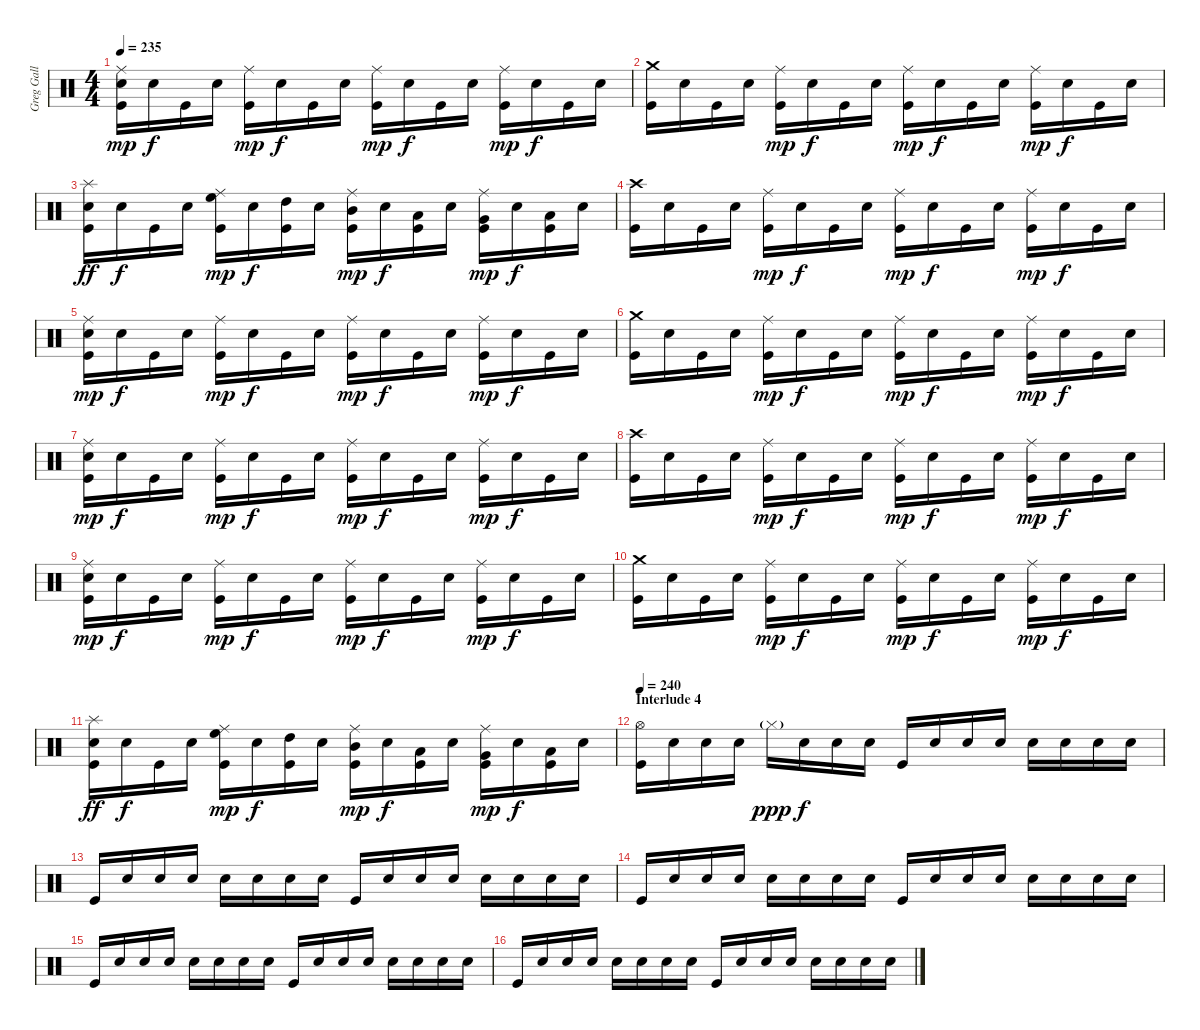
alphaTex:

\track ("Greg Gall - Drums" "Greg Gall ") {instrument percussion}
\staff {score}
\articulation defaults
\ts (4 4)
\tempo 235
\clef neutral
\ks c
("Ride (middle)" "Electric Snare (hit)" "Kick (hit)").16{dy mp} "Snare (hit)".16{dy f} "Kick (hit)".16 "Snare (hit)".16 ("Ride (middle)" "Kick (hit)").16{dy mp} "Snare (hit)".16{dy f} "Kick (hit)".16 "Snare (hit)".16 ("Ride (middle)" "Kick (hit)").16{dy mp} "Snare (hit)".16{dy f} "Kick (hit)".16 "Snare (hit)".16 ("Ride (middle)" "Kick (hit)").16{dy mp} "Snare (hit)".16{dy f} "Kick (hit)".16 "Snare (hit)".16 |
("Crash medium (hit)" "Kick (hit)").16 "Snare (hit)".16 "Kick (hit)".16 "Snare (hit)".16 ("Ride (middle)" "Kick (hit)").16{dy mp} "Snare (hit)".16{dy f} "Kick (hit)".16 "Snare (hit)".16 ("Ride (middle)" "Kick (hit)").16{dy mp} "Snare (hit)".16{dy f} "Kick (hit)".16 "Snare (hit)".16 ("Ride (middle)" "Kick (hit)").16{dy mp} "Snare (hit)".16{dy f} "Kick (hit)".16 "Snare (hit)".16 |
("Splash (hit)" "Electric Snare (hit)" "Kick (hit)").16{dy ff} "Snare (hit)".16{dy f} "Kick (hit)".16 "Snare (hit)".16 ("Ride (middle)" "High Floor Tom (hit)" "Kick (hit)").16{dy mp} "Snare (hit)".16{dy f} ("High Tom (hit)" "Kick (hit)").16 "Snare (hit)".16 ("Ride (middle)" "Mid Tom (hit)" "Kick (hit)").16{dy mp} "Snare (hit)".16{dy f} ("Low Tom (hit)" "Kick (hit)").16 "Snare (hit)".16 ("Ride (middle)" "Very Low Tom (hit)" "Kick (hit)").16{dy mp} "Snare (hit)".16{dy f} ("Low Floor Tom (hit)" "Kick (hit)").16 "Snare (hit)".16 |
("Crash high (hit)" "Kick (hit)").16 "Snare (hit)".16 "Kick (hit)".16 "Snare (hit)".16 ("Ride (middle)" "Kick (hit)").16{dy mp} "Snare (hit)".16{dy f} "Kick (hit)".16 "Snare (hit)".16 ("Ride (middle)" "Kick (hit)").16{dy mp} "Snare (hit)".16{dy f} "Kick (hit)".16 "Snare (hit)".16 ("Ride (middle)" "Kick (hit)").16{dy mp} "Snare (hit)".16{dy f} "Kick (hit)".16 "Snare (hit)".16 |
("Ride (middle)" "Electric Snare (hit)" "Kick (hit)").16{dy mp} "Snare (hit)".16{dy f} "Kick (hit)".16 "Snare (hit)".16 ("Ride (middle)" "Kick (hit)").16{dy mp} "Snare (hit)".16{dy f} "Kick (hit)".16 "Snare (hit)".16 ("Ride (middle)" "Kick (hit)").16{dy mp} "Snare (hit)".16{dy f} "Kick (hit)".16 "Snare (hit)".16 ("Ride (middle)" "Kick (hit)").16{dy mp} "Snare (hit)".16{dy f} "Kick (hit)".16 "Snare (hit)".16 |
("Crash medium (hit)" "Kick (hit)").16 "Snare (hit)".16 "Kick (hit)".16 "Snare (hit)".16 ("Ride (middle)" "Kick (hit)").16{dy mp} "Snare (hit)".16{dy f} "Kick (hit)".16 "Snare (hit)".16 ("Ride (middle)" "Kick (hit)").16{dy mp} "Snare (hit)".16{dy f} "Kick (hit)".16 "Snare (hit)".16 ("Ride (middle)" "Kick (hit)").16{dy mp} "Snare (hit)".16{dy f} "Kick (hit)".16 "Snare (hit)".16 |
("Ride (middle)" "Electric Snare (hit)" "Kick (hit)").16{dy mp} "Snare (hit)".16{dy f} "Kick (hit)".16 "Snare (hit)".16 ("Ride (middle)" "Kick (hit)").16{dy mp} "Snare (hit)".16{dy f} "Kick (hit)".16 "Snare (hit)".16 ("Ride (middle)" "Kick (hit)").16{dy mp} "Snare (hit)".16{dy f} "Kick (hit)".16 "Snare (hit)".16 ("Ride (middle)" "Kick (hit)").16{dy mp} "Snare (hit)".16{dy f} "Kick (hit)".16 "Snare (hit)".16 |
("Crash high (hit)" "Kick (hit)").16 "Snare (hit)".16 "Kick (hit)".16 "Snare (hit)".16 ("Ride (middle)" "Kick (hit)").16{dy mp} "Snare (hit)".16{dy f} "Kick (hit)".16 "Snare (hit)".16 ("Ride (middle)" "Kick (hit)").16{dy mp} "Snare (hit)".16{dy f} "Kick (hit)".16 "Snare (hit)".16 ("Ride (middle)" "Kick (hit)").16{dy mp} "Snare (hit)".16{dy f} "Kick (hit)".16 "Snare (hit)".16 |
("Ride (middle)" "Electric Snare (hit)" "Kick (hit)").16{dy mp} "Snare (hit)".16{dy f} "Kick (hit)".16 "Snare (hit)".16 ("Ride (middle)" "Kick (hit)").16{dy mp} "Snare (hit)".16{dy f} "Kick (hit)".16 "Snare (hit)".16 ("Ride (middle)" "Kick (hit)").16{dy mp} "Snare (hit)".16{dy f} "Kick (hit)".16 "Snare (hit)".16 ("Ride (middle)" "Kick (hit)").16{dy mp} "Snare (hit)".16{dy f} "Kick (hit)".16 "Snare (hit)".16 |
("Crash medium (hit)" "Kick (hit)").16 "Snare (hit)".16 "Kick (hit)".16 "Snare (hit)".16 ("Ride (middle)" "Kick (hit)").16{dy mp} "Snare (hit)".16{dy f} "Kick (hit)".16 "Snare (hit)".16 ("Ride (middle)" "Kick (hit)").16{dy mp} "Snare (hit)".16{dy f} "Kick (hit)".16 "Snare (hit)".16 ("Ride (middle)" "Kick (hit)").16{dy mp} "Snare (hit)".16{dy f} "Kick (hit)".16 "Snare (hit)".16 |
("Splash (hit)" "Electric Snare (hit)" "Kick (hit)").16{dy ff} "Snare (hit)".16{dy f} "Kick (hit)".16 "Snare (hit)".16 ("Ride (middle)" "High Floor Tom (hit)" "Kick (hit)").16{dy mp} "Snare (hit)".16{dy f} ("High Tom (hit)" "Kick (hit)").16 "Snare (hit)".16 ("Ride (middle)" "Mid Tom (hit)" "Kick (hit)").16{dy mp} "Snare (hit)".16{dy f} ("Low Tom (hit)" "Kick (hit)").16 "Snare (hit)".16 ("Ride (middle)" "Very Low Tom (hit)" "Kick (hit)").16{dy mp} "Snare (hit)".16{dy f} ("Low Floor Tom (hit)" "Kick (hit)").16 "Snare (hit)".16 |
\section ("" "Interlude 4")
\tempo 240
("Hi-Hat (open)" "Kick (hit)").16{volume 12 balance 8} "Snare (hit)".16 "Snare (hit)".16 "Snare (hit)".16 "Hi-Hat (closed)"{g}.16{dy ppp} "Snare (hit)".16{dy f} "Snare (hit)".16 "Snare (hit)".16 "Kick (hit)".16 "Snare (hit)".16 "Snare (hit)".16 "Snare (hit)".16 "Snare (hit)".16 "Snare (hit)".16 "Snare (hit)".16 "Snare (hit)".16 |
"Kick (hit)".16 "Snare (hit)".16 "Snare (hit)".16 "Snare (hit)".16 "Snare (hit)".16 "Snare (hit)".16 "Snare (hit)".16 "Snare (hit)".16 "Kick (hit)".16 "Snare (hit)".16 "Snare (hit)".16 "Snare (hit)".16 "Snare (hit)".16 "Snare (hit)".16 "Snare (hit)".16 "Snare (hit)".16 |
"Kick (hit)".16 "Snare (hit)".16 "Snare (hit)".16 "Snare (hit)".16 "Snare (hit)".16 "Snare (hit)".16 "Snare (hit)".16 "Snare (hit)".16 "Kick (hit)".16 "Snare (hit)".16 "Snare (hit)".16 "Snare (hit)".16 "Snare (hit)".16 "Snare (hit)".16 "Snare (hit)".16 "Snare (hit)".16 |
"Kick (hit)".16 "Snare (hit)".16 "Snare (hit)".16 "Snare (hit)".16 "Snare (hit)".16 "Snare (hit)".16 "Snare (hit)".16 "Snare (hit)".16 "Kick (hit)".16 "Snare (hit)".16 "Snare (hit)".16 "Snare (hit)".16 "Snare (hit)".16 "Snare (hit)".16 "Snare (hit)".16 "Snare (hit)".16 |
"Kick (hit)".16 "Snare (hit)".16 "Snare (hit)".16 "Snare (hit)".16 "Snare (hit)".16 "Snare (hit)".16 "Snare (hit)".16 "Snare (hit)".16 "Kick (hit)".16 "Snare (hit)".16 "Snare (hit)".16 "Snare (hit)".16 "Snare (hit)".16 "Snare (hit)".16 "Snare (hit)".16 "Snare (hit)".16
